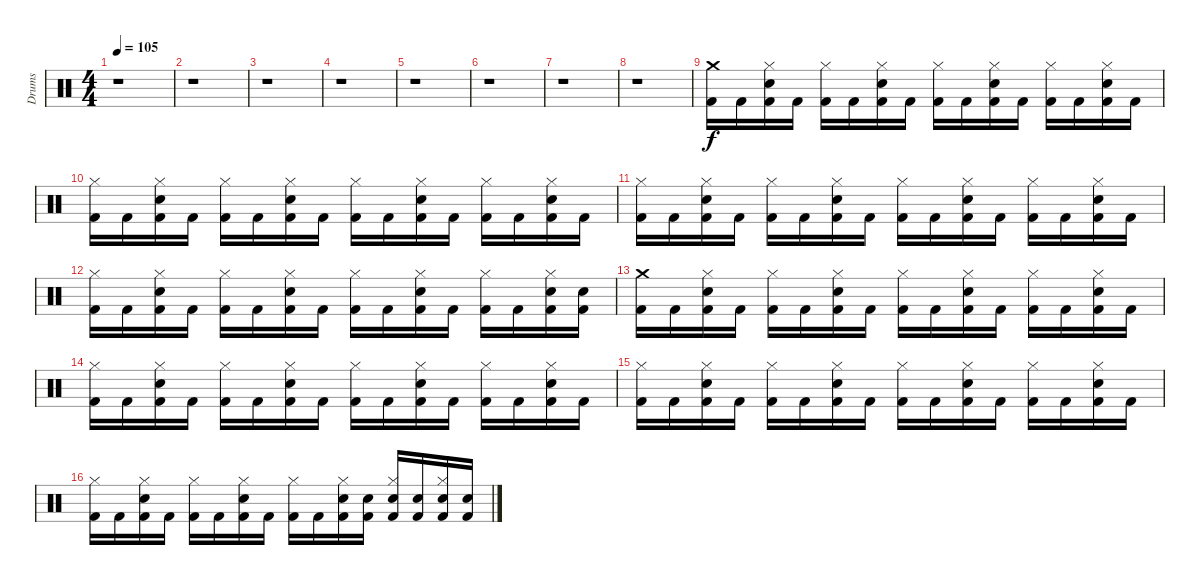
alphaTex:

\track ("Drums" "Drums") {instrument percussion}
\staff {score}
\articulation defaults
\ts (4 4)
\tempo 105
\clef neutral
\ks c
r.1{dy f} |
r.1 |
r.1 |
r.1 |
r.1 |
r.1 |
r.1 |
r.1 |
("Crash medium (hit)" "Kick (hit) 2").16 "Kick (hit) 2".16 ("Hi-Hat (closed)" "Electric Snare (hit)" "Kick (hit) 2").16 "Kick (hit) 2".16 ("Hi-Hat (closed)" "Kick (hit) 2").16 "Kick (hit) 2".16 ("Hi-Hat (closed)" "Electric Snare (hit)" "Kick (hit) 2").16 "Kick (hit) 2".16 ("Hi-Hat (closed)" "Kick (hit) 2").16 "Kick (hit) 2".16 ("Hi-Hat (closed)" "Electric Snare (hit)" "Kick (hit) 2").16 "Kick (hit) 2".16 ("Hi-Hat (closed)" "Kick (hit) 2").16 "Kick (hit) 2".16 ("Hi-Hat (closed)" "Electric Snare (hit)" "Kick (hit) 2").16 "Kick (hit) 2".16 |
("Hi-Hat (closed)" "Kick (hit) 2").16 "Kick (hit) 2".16 ("Hi-Hat (closed)" "Electric Snare (hit)" "Kick (hit) 2").16 "Kick (hit) 2".16 ("Hi-Hat (closed)" "Kick (hit) 2").16 "Kick (hit) 2".16 ("Hi-Hat (closed)" "Electric Snare (hit)" "Kick (hit) 2").16 "Kick (hit) 2".16 ("Hi-Hat (closed)" "Kick (hit) 2").16 "Kick (hit) 2".16 ("Hi-Hat (closed)" "Electric Snare (hit)" "Kick (hit) 2").16 "Kick (hit) 2".16 ("Hi-Hat (closed)" "Kick (hit) 2").16 "Kick (hit) 2".16 ("Hi-Hat (closed)" "Electric Snare (hit)" "Kick (hit) 2").16 "Kick (hit) 2".16 |
("Hi-Hat (closed)" "Kick (hit) 2").16 "Kick (hit) 2".16 ("Hi-Hat (closed)" "Electric Snare (hit)" "Kick (hit) 2").16 "Kick (hit) 2".16 ("Hi-Hat (closed)" "Kick (hit) 2").16 "Kick (hit) 2".16 ("Hi-Hat (closed)" "Electric Snare (hit)" "Kick (hit) 2").16 "Kick (hit) 2".16 ("Hi-Hat (closed)" "Kick (hit) 2").16 "Kick (hit) 2".16 ("Hi-Hat (closed)" "Electric Snare (hit)" "Kick (hit) 2").16 "Kick (hit) 2".16 ("Hi-Hat (closed)" "Kick (hit) 2").16 "Kick (hit) 2".16 ("Hi-Hat (closed)" "Electric Snare (hit)" "Kick (hit) 2").16 "Kick (hit) 2".16 |
("Hi-Hat (closed)" "Kick (hit) 2").16 "Kick (hit) 2".16 ("Hi-Hat (closed)" "Electric Snare (hit)" "Kick (hit) 2").16 "Kick (hit) 2".16 ("Hi-Hat (closed)" "Kick (hit) 2").16 "Kick (hit) 2".16 ("Hi-Hat (closed)" "Electric Snare (hit)" "Kick (hit) 2").16 "Kick (hit) 2".16 ("Hi-Hat (closed)" "Kick (hit) 2").16 "Kick (hit) 2".16 ("Hi-Hat (closed)" "Electric Snare (hit)" "Kick (hit) 2").16 "Kick (hit) 2".16 ("Hi-Hat (closed)" "Kick (hit) 2").16 "Kick (hit) 2".16 ("Hi-Hat (closed)" "Electric Snare (hit)" "Kick (hit) 2").16 ("Electric Snare (hit)" "Kick (hit) 2").16 |
("Crash medium (hit)" "Kick (hit) 2").16 "Kick (hit) 2".16 ("Hi-Hat (closed)" "Electric Snare (hit)" "Kick (hit) 2").16 "Kick (hit) 2".16 ("Hi-Hat (closed)" "Kick (hit) 2").16 "Kick (hit) 2".16 ("Hi-Hat (closed)" "Electric Snare (hit)" "Kick (hit) 2").16 "Kick (hit) 2".16 ("Hi-Hat (closed)" "Kick (hit) 2").16 "Kick (hit) 2".16 ("Hi-Hat (closed)" "Electric Snare (hit)" "Kick (hit) 2").16 "Kick (hit) 2".16 ("Hi-Hat (closed)" "Kick (hit) 2").16 "Kick (hit) 2".16 ("Hi-Hat (closed)" "Electric Snare (hit)" "Kick (hit) 2").16 "Kick (hit) 2".16 |
("Hi-Hat (closed)" "Kick (hit) 2").16 "Kick (hit) 2".16 ("Hi-Hat (closed)" "Electric Snare (hit)" "Kick (hit) 2").16 "Kick (hit) 2".16 ("Hi-Hat (closed)" "Kick (hit) 2").16 "Kick (hit) 2".16 ("Hi-Hat (closed)" "Electric Snare (hit)" "Kick (hit) 2").16 "Kick (hit) 2".16 ("Hi-Hat (closed)" "Kick (hit) 2").16 "Kick (hit) 2".16 ("Hi-Hat (closed)" "Electric Snare (hit)" "Kick (hit) 2").16 "Kick (hit) 2".16 ("Hi-Hat (closed)" "Kick (hit) 2").16 "Kick (hit) 2".16 ("Hi-Hat (closed)" "Electric Snare (hit)" "Kick (hit) 2").16 "Kick (hit) 2".16 |
("Hi-Hat (closed)" "Kick (hit) 2").16 "Kick (hit) 2".16 ("Hi-Hat (closed)" "Electric Snare (hit)" "Kick (hit) 2").16 "Kick (hit) 2".16 ("Hi-Hat (closed)" "Kick (hit) 2").16 "Kick (hit) 2".16 ("Hi-Hat (closed)" "Electric Snare (hit)" "Kick (hit) 2").16 "Kick (hit) 2".16 ("Hi-Hat (closed)" "Kick (hit) 2").16 "Kick (hit) 2".16 ("Hi-Hat (closed)" "Electric Snare (hit)" "Kick (hit) 2").16 "Kick (hit) 2".16 ("Hi-Hat (closed)" "Kick (hit) 2").16 "Kick (hit) 2".16 ("Hi-Hat (closed)" "Electric Snare (hit)" "Kick (hit) 2").16 "Kick (hit) 2".16 |
("Hi-Hat (closed)" "Kick (hit) 2").16 "Kick (hit) 2".16 ("Hi-Hat (closed)" "Electric Snare (hit)" "Kick (hit) 2").16 "Kick (hit) 2".16 ("Hi-Hat (closed)" "Kick (hit) 2").16 "Kick (hit) 2".16 ("Hi-Hat (closed)" "Electric Snare (hit)" "Kick (hit) 2").16 "Kick (hit) 2".16 ("Hi-Hat (closed)" "Kick (hit) 2").16 "Kick (hit) 2".16 ("Hi-Hat (closed)" "Electric Snare (hit)" "Kick (hit) 2").16 ("Electric Snare (hit)" "Kick (hit) 2").16 ("Hi-Hat (closed)" "Electric Snare (hit)" "Kick (hit) 2").16 ("Electric Snare (hit)" "Kick (hit) 2").16 ("Hi-Hat (closed)" "Electric Snare (hit)" "Kick (hit) 2").16 ("Electric Snare (hit)" "Kick (hit) 2").16
